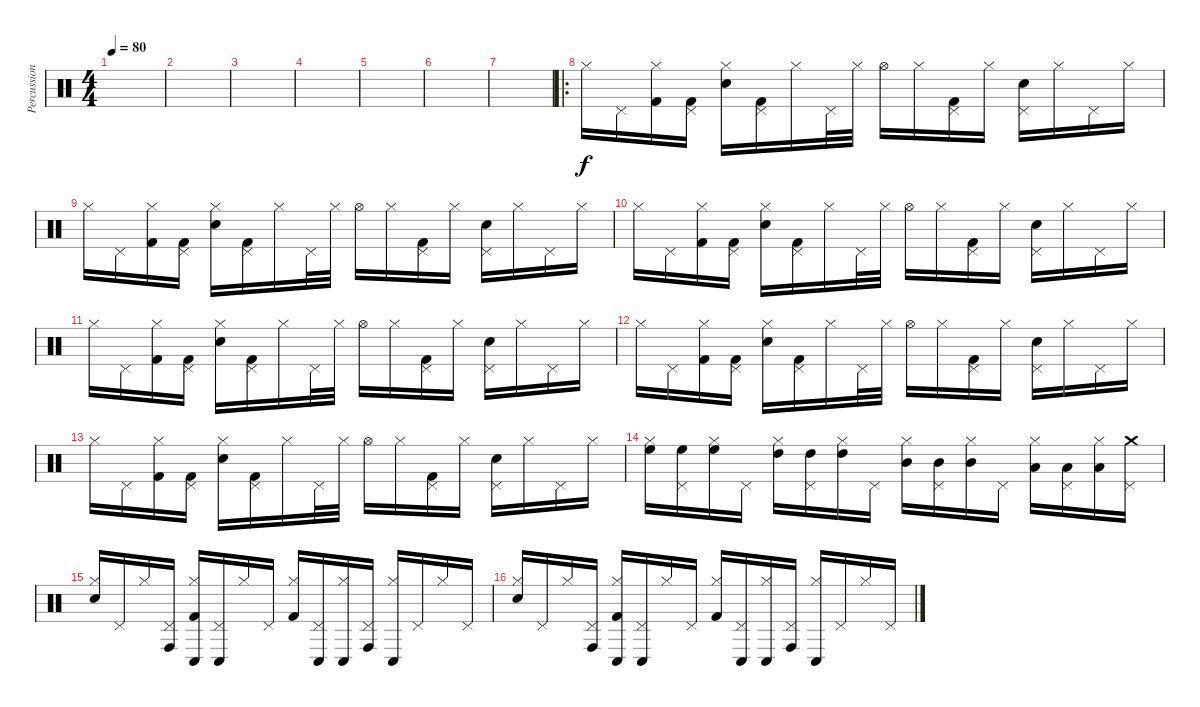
\track ("Percussions" "Percussion") {instrument percussion}
\staff {score}
\articulation defaults
\ts (4 4)
\tempo 80
\clef neutral
\ks c
|
|
|
|
|
|
|
\ro "Hi-Hat (closed)".16 "Pedal Hi-Hat (hit)".16
("Hi-Hat (closed)" "Kick (hit) 2").16 ("Pedal Hi-Hat (hit)" "Kick (hit) 2").16 ("Hi-Hat (closed)" "Electric Snare (hit)").16 ("Pedal Hi-Hat (hit)" "Kick (hit) 2").16 "Hi-Hat (closed)".16 "Pedal Hi-Hat (hit)".32 "Hi-Hat (closed)".32 "Hi-Hat (open)".16 "Hi-Hat (closed)".16 ("Pedal Hi-Hat (hit)" "Kick (hit) 2").16 "Hi-Hat (closed)".16 ("Pedal Hi-Hat (hit)" "Electric Snare (hit)").16 "Hi-Hat (closed)".16 "Pedal Hi-Hat (hit)".16 "Hi-Hat (closed)".16 |
"Hi-Hat (closed)".16 "Pedal Hi-Hat (hit)".16 ("Hi-Hat (closed)" "Kick (hit) 2").16 ("Pedal Hi-Hat (hit)" "Kick (hit) 2").16 ("Hi-Hat (closed)" "Electric Snare (hit)").16 ("Pedal Hi-Hat (hit)" "Kick (hit) 2").16 "Hi-Hat (closed)".16 "Pedal Hi-Hat (hit)".32 "Hi-Hat (closed)".32 "Hi-Hat (open)".16 "Hi-Hat (closed)".16 ("Pedal Hi-Hat (hit)" "Kick (hit) 2").16 "Hi-Hat (closed)".16 ("Pedal Hi-Hat (hit)" "Electric Snare (hit)").16 "Hi-Hat (closed)".16 "Pedal Hi-Hat (hit)".16 "Hi-Hat (closed)".16 |
"Hi-Hat (closed)".16 "Pedal Hi-Hat (hit)".16 ("Hi-Hat (closed)" "Kick (hit) 2").16 ("Pedal Hi-Hat (hit)" "Kick (hit) 2").16 ("Hi-Hat (closed)" "Electric Snare (hit)").16 ("Pedal Hi-Hat (hit)" "Kick (hit) 2").16 "Hi-Hat (closed)".16 "Pedal Hi-Hat (hit)".32 "Hi-Hat (closed)".32 "Hi-Hat (open)".16 "Hi-Hat (closed)".16 ("Pedal Hi-Hat (hit)" "Kick (hit) 2").16 "Hi-Hat (closed)".16 ("Pedal Hi-Hat (hit)" "Electric Snare (hit)").16 "Hi-Hat (closed)".16 "Pedal Hi-Hat (hit)".16 "Hi-Hat (closed)".16 |
"Hi-Hat (closed)".16 "Pedal Hi-Hat (hit)".16 ("Hi-Hat (closed)" "Kick (hit) 2").16 ("Pedal Hi-Hat (hit)" "Kick (hit) 2").16 ("Hi-Hat (closed)" "Electric Snare (hit)").16 ("Pedal Hi-Hat (hit)" "Kick (hit) 2").16 "Hi-Hat (closed)".16 "Pedal Hi-Hat (hit)".32 "Hi-Hat (closed)".32 "Hi-Hat (open)".16 "Hi-Hat (closed)".16 ("Pedal Hi-Hat (hit)" "Kick (hit) 2").16 "Hi-Hat (closed)".16 ("Pedal Hi-Hat (hit)" "Electric Snare (hit)").16 "Hi-Hat (closed)".16 "Pedal Hi-Hat (hit)".16 "Hi-Hat (closed)".16 |
"Hi-Hat (closed)".16 "Pedal Hi-Hat (hit)".16 ("Hi-Hat (closed)" "Kick (hit) 2").16 ("Pedal Hi-Hat (hit)" "Kick (hit) 2").16 ("Hi-Hat (closed)" "Electric Snare (hit)").16 ("Pedal Hi-Hat (hit)" "Kick (hit) 2").16 "Hi-Hat (closed)".16 "Pedal Hi-Hat (hit)".32 "Hi-Hat (closed)".32 "Hi-Hat (open)".16 "Hi-Hat (closed)".16 ("Pedal Hi-Hat (hit)" "Kick (hit) 2").16 "Hi-Hat (closed)".16 ("Pedal Hi-Hat (hit)" "Electric Snare (hit)").16 "Hi-Hat (closed)".16 "Pedal Hi-Hat (hit)".16 "Hi-Hat (closed)".16 |
"Hi-Hat (closed)".16 "Pedal Hi-Hat (hit)".16 ("Hi-Hat (closed)" "Kick (hit) 2").16 ("Pedal Hi-Hat (hit)" "Kick (hit) 2").16 ("Hi-Hat (closed)" "Electric Snare (hit)").16 ("Pedal Hi-Hat (hit)" "Kick (hit) 2").16 "Hi-Hat (closed)".16 "Pedal Hi-Hat (hit)".32 "Hi-Hat (closed)".32 "Hi-Hat (open)".16 "Hi-Hat (closed)".16 ("Pedal Hi-Hat (hit)" "Kick (hit) 2").16 "Hi-Hat (closed)".16 ("Pedal Hi-Hat (hit)" "Electric Snare (hit)").16 "Hi-Hat (closed)".16 "Pedal Hi-Hat (hit)".16 "Hi-Hat (closed)".16 |
("Hi-Hat (closed)" "High Floor Tom (hit)").16 ("Pedal Hi-Hat (hit)" "High Floor Tom (hit)").16 ("Hi-Hat (closed)" "High Floor Tom (hit)").16 "Pedal Hi-Hat (hit)".16 ("Hi-Hat (closed)" "High Tom (hit)").16 ("Pedal Hi-Hat (hit)" "High Tom (hit)").16 ("Hi-Hat (closed)" "High Tom (hit)").16 "Pedal Hi-Hat (hit)".16 ("Hi-Hat (closed)" "Mid Tom (hit)").16 ("Pedal Hi-Hat (hit)" "Mid Tom (hit)").16 ("Hi-Hat (closed)" "Mid Tom (hit)").16 "Pedal Hi-Hat (hit)".16 ("Hi-Hat (closed)" "Low Tom (hit)").16 ("Pedal Hi-Hat (hit)" "Low Tom (hit)").16 ("Hi-Hat (closed)" "Low Tom (hit)").16 ("Pedal Hi-Hat (hit)" "Crash medium (hit)").16 |
("Hi-Hat (closed)" "Snare (hit) 2").16 "Pedal Hi-Hat (hit)".16 "Hi-Hat (closed)".16 ("Pedal Hi-Hat (hit)" "Conga high (hit)").16 ("Hi-Hat (closed)" "Kick (hit) 2" "Conga low (hit)").16 ("Pedal Hi-Hat (hit)" "Conga low (hit)").16 "Hi-Hat (closed)".16 "Pedal Hi-Hat (hit)".16 ("Hi-Hat (closed)" "Kick (hit) 2").16 ("Pedal Hi-Hat (hit)" "Conga low (hit)").16 ("Hi-Hat (closed)" "Conga low (hit)").16 ("Pedal Hi-Hat (hit)" "Conga high (hit)").16 ("Hi-Hat (closed)" "Conga low (hit)").16 "Pedal Hi-Hat (hit)".16 "Hi-Hat (closed)".16 "Pedal Hi-Hat (hit)".16 |
("Hi-Hat (closed)" "Snare (hit) 2").16 "Pedal Hi-Hat (hit)".16 "Hi-Hat (closed)".16 ("Pedal Hi-Hat (hit)" "Conga high (hit)").16 ("Hi-Hat (closed)" "Kick (hit) 2" "Conga low (hit)").16 ("Pedal Hi-Hat (hit)" "Conga low (hit)").16 "Hi-Hat (closed)".16 "Pedal Hi-Hat (hit)".16 ("Hi-Hat (closed)" "Kick (hit) 2").16 ("Pedal Hi-Hat (hit)" "Conga low (hit)").16 ("Hi-Hat (closed)" "Conga low (hit)").16 ("Pedal Hi-Hat (hit)" "Conga high (hit)").16 ("Hi-Hat (closed)" "Conga low (hit)").16 "Pedal Hi-Hat (hit)".16 "Hi-Hat (closed)".16 "Pedal Hi-Hat (hit)".16
